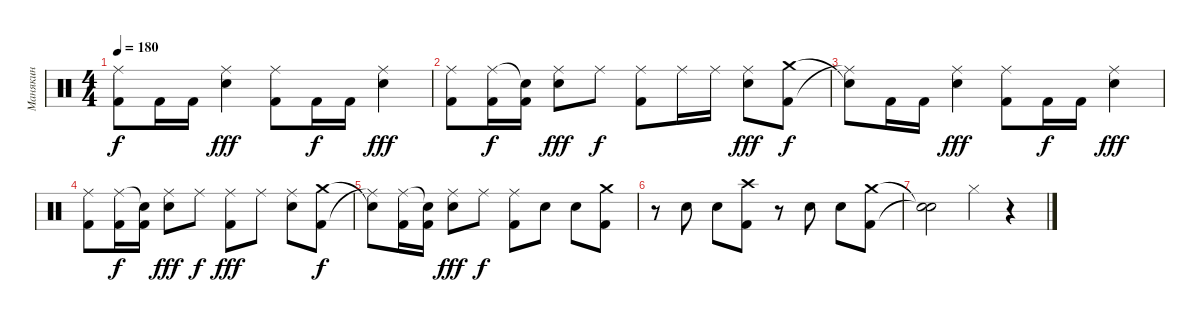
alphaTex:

\track ("Манякин" "Манякин") {instrument percussion}
\staff {score}
\articulation defaults
\ts (4 4)
\tempo 180
\clef neutral
\ks c
("Ride (middle)"{t} "Kick (hit) 2"{t}).8{dy f} "Kick (hit) 2".16 "Kick (hit) 2".16 ("Snare (hit) 2" "Ride (middle)").4{dy fff} ("Kick (hit) 2" "Ride (middle)").8 "Kick (hit) 2".16{dy f} "Kick (hit) 2".16 ("Snare (hit) 2" "Ride (middle)").4{dy fff} |
("Kick (hit) 2" "Ride (middle)").8 ("Kick (hit) 2" "Ride (middle)").16{dy f} ("Kick (hit) 2" "Snare (hit)"{t}).16 ("Snare (hit) 2" "Ride (middle)").8{dy fff} "Ride (middle)".8{dy f} ("Kick (hit) 2" "Ride (middle)").8 "Ride (middle)".16 "Ride (middle)".16 ("Snare (hit) 2" "Ride (middle)").8{dy fff} ("Kick (hit) 2" "Crash medium (hit)").8{dy f} |
("Ride (middle)"{t} "Snare (hit)"{t}).8 "Kick (hit) 2".16 "Kick (hit) 2".16 ("Snare (hit) 2" "Ride (middle)").4{dy fff} ("Kick (hit) 2" "Ride (middle)").8 "Kick (hit) 2".16{dy f} "Kick (hit) 2".16 ("Snare (hit) 2" "Ride (middle)").4{dy fff} |
("Kick (hit) 2" "Ride (middle)").8 ("Kick (hit) 2" "Ride (middle)").16{dy f} ("Kick (hit) 2" "Snare (hit)"{t}).16 ("Snare (hit) 2" "Ride (middle)").8{dy fff} "Ride (middle)".8{dy f} ("Ride (middle)" "Kick (hit) 2").8{dy fff} "Ride (middle)".8 ("Snare (hit) 2" "Ride (middle)").8 ("Kick (hit) 2" "Crash medium (hit)").8{dy f} |
("Ride (middle)"{t} "Snare (hit)"{t}).8 ("Kick (hit) 2" "Ride (middle)").16 ("Kick (hit) 2" "Snare (hit)"{t}).16 ("Snare (hit) 2" "Ride (middle)").8{dy fff} "Ride (middle)".8{dy f} ("Ride (middle)" "Kick (hit) 2").8 "Snare (hit) 2".8 "Snare (hit) 2".8 ("Kick (hit) 2" "Crash medium (hit)").8 |
r.8 "Snare (hit) 2".8 "Snare (hit) 2".8 ("Kick (hit) 2" "Crash high (hit)").8 r.8 "Snare (hit) 2".8 "Snare (hit) 2".8 ("Kick (hit) 2" "Crash medium (hit)").8 |
("Snare (hit)"{t} "Snare (hit)"{t}).2 "Hi-Hat (closed)".4 r.4
